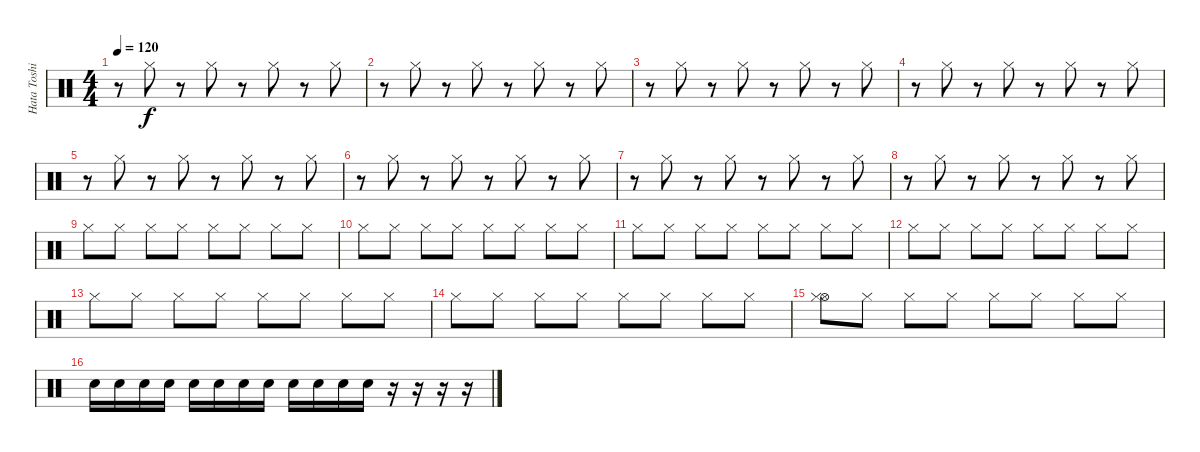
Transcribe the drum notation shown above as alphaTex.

\track ("Hata Toshiki" "Hata Toshi") {instrument percussion}
\staff {score}
\articulation defaults
\ts (4 4)
\tempo 120
\clef neutral
\ks c
r.8{dy f} "Hi-Hat (closed)".8 r.8 "Hi-Hat (closed)".8 r.8 "Hi-Hat (closed)".8 r.8 "Hi-Hat (closed)".8 |
r.8 "Hi-Hat (closed)".8 r.8 "Hi-Hat (closed)".8 r.8 "Hi-Hat (closed)".8 r.8 "Hi-Hat (closed)".8 |
r.8 "Hi-Hat (closed)".8 r.8 "Hi-Hat (closed)".8 r.8 "Hi-Hat (closed)".8 r.8 "Hi-Hat (closed)".8 |
r.8 "Hi-Hat (closed)".8 r.8 "Hi-Hat (closed)".8 r.8 "Hi-Hat (closed)".8 r.8 "Hi-Hat (closed)".8 |
r.8 "Hi-Hat (closed)".8 r.8 "Hi-Hat (closed)".8 r.8 "Hi-Hat (closed)".8 r.8 "Hi-Hat (closed)".8 |
r.8 "Hi-Hat (closed)".8 r.8 "Hi-Hat (closed)".8 r.8 "Hi-Hat (closed)".8 r.8 "Hi-Hat (closed)".8 |
r.8 "Hi-Hat (closed)".8 r.8 "Hi-Hat (closed)".8 r.8 "Hi-Hat (closed)".8 r.8 "Hi-Hat (closed)".8 |
r.8 "Hi-Hat (closed)".8 r.8 "Hi-Hat (closed)".8 r.8 "Hi-Hat (closed)".8 r.8 "Hi-Hat (closed)".8 |
"Hi-Hat (closed)".8 "Hi-Hat (closed)".8 "Hi-Hat (closed)".8 "Hi-Hat (closed)".8 "Hi-Hat (closed)".8 "Hi-Hat (closed)".8 "Hi-Hat (closed)".8 "Hi-Hat (closed)".8 |
"Hi-Hat (closed)".8 "Hi-Hat (closed)".8 "Hi-Hat (closed)".8 "Hi-Hat (closed)".8 "Hi-Hat (closed)".8 "Hi-Hat (closed)".8 "Hi-Hat (closed)".8 "Hi-Hat (closed)".8 |
"Hi-Hat (closed)".8 "Hi-Hat (closed)".8 "Hi-Hat (closed)".8 "Hi-Hat (closed)".8 "Hi-Hat (closed)".8 "Hi-Hat (closed)".8 "Hi-Hat (closed)".8 "Hi-Hat (closed)".8 |
"Hi-Hat (closed)".8 "Hi-Hat (closed)".8 "Hi-Hat (closed)".8 "Hi-Hat (closed)".8 "Hi-Hat (closed)".8 "Hi-Hat (closed)".8 "Hi-Hat (closed)".8 "Hi-Hat (closed)".8 |
"Hi-Hat (closed)".8 "Hi-Hat (closed)".8 "Hi-Hat (closed)".8 "Hi-Hat (closed)".8 "Hi-Hat (closed)".8 "Hi-Hat (closed)".8 "Hi-Hat (closed)".8 "Hi-Hat (closed)".8 |
"Hi-Hat (closed)".8 "Hi-Hat (closed)".8 "Hi-Hat (closed)".8 "Hi-Hat (closed)".8 "Hi-Hat (closed)".8 "Hi-Hat (closed)".8 "Hi-Hat (closed)".8 "Hi-Hat (closed)".8 |
("Hi-Hat (open)" "Hi-Hat (closed)").8 "Hi-Hat (closed)".8 "Hi-Hat (closed)".8 "Hi-Hat (closed)".8 "Hi-Hat (closed)".8 "Hi-Hat (closed)".8 "Hi-Hat (closed)".8 "Hi-Hat (closed)".8 |
"Electric Snare (hit)".16 "Electric Snare (hit)".16 "Electric Snare (hit)".16 "Electric Snare (hit)".16 "Electric Snare (hit)".16 "Electric Snare (hit)".16 "Electric Snare (hit)".16 "Electric Snare (hit)".16 "Electric Snare (hit)".16 "Electric Snare (hit)".16 "Electric Snare (hit)".16 "Electric Snare (hit)".16 r.16 r.16 r.16 r.16
